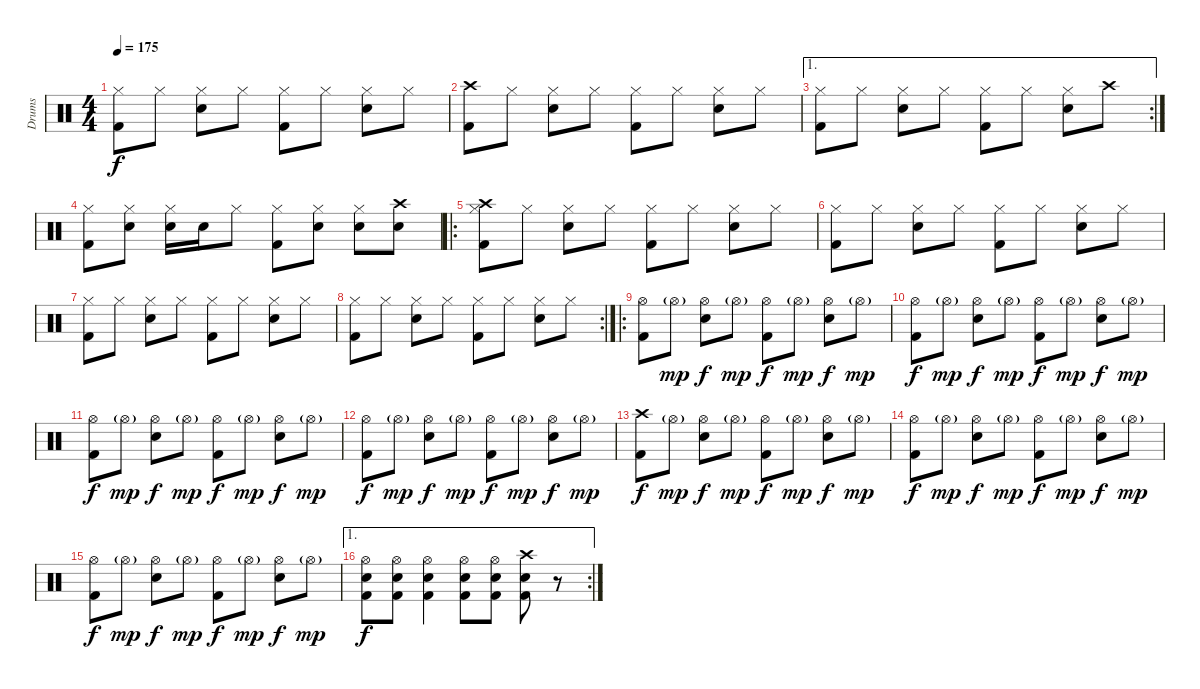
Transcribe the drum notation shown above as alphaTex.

\track ("Drums" "Drums") {instrument percussion}
\staff {score}
\articulation defaults
\ts (4 4)
\tempo 175
\clef neutral
\ks c
("Hi-Hat (closed)" "Kick (hit) 2").8{dy f} "Hi-Hat (closed)".8 ("Hi-Hat (closed)" "Snare (hit) 2").8 "Hi-Hat (closed)".8 ("Hi-Hat (closed)" "Kick (hit) 2").8 "Hi-Hat (closed)".8 ("Hi-Hat (closed)" "Snare (hit) 2").8 "Hi-Hat (closed)".8 |
("Crash high (hit)" "Kick (hit) 2").8 "Hi-Hat (closed)".8 ("Hi-Hat (closed)" "Snare (hit) 2").8 "Hi-Hat (closed)".8 ("Hi-Hat (closed)" "Kick (hit) 2").8 "Hi-Hat (closed)".8 ("Hi-Hat (closed)" "Snare (hit) 2").8 "Hi-Hat (closed)".8 |
\ae 1
\rc 2
("Hi-Hat (closed)" "Kick (hit) 2").8 "Hi-Hat (closed)".8 ("Hi-Hat (closed)" "Snare (hit) 2").8 "Hi-Hat (closed)".8 ("Hi-Hat (closed)" "Kick (hit) 2").8 "Hi-Hat (closed)".8 ("Hi-Hat (closed)" "Snare (hit) 2").8 "Crash high (hit)".8 |
("Hi-Hat (closed)" "Kick (hit) 2").8 ("Hi-Hat (closed)" "Snare (hit) 2").8 ("Hi-Hat (closed)" "Snare (hit) 2").16 "Snare (hit) 2".16 "Hi-Hat (closed)".8 ("Hi-Hat (closed)" "Kick (hit) 2").8 ("Hi-Hat (closed)" "Snare (hit) 2").8 ("Hi-Hat (closed)" "Snare (hit) 2").8 ("Crash high (hit)" "Snare (hit) 2").8 |
\ro
("Hi-Hat (closed)" "Crash high (hit)" "Kick (hit) 2").8 "Hi-Hat (closed)".8 ("Hi-Hat (closed)" "Snare (hit) 2").8 "Hi-Hat (closed)".8 ("Hi-Hat (closed)" "Kick (hit) 2").8 "Hi-Hat (closed)".8 ("Hi-Hat (closed)" "Snare (hit) 2").8 "Hi-Hat (closed)".8 |
("Hi-Hat (closed)" "Kick (hit) 2").8 "Hi-Hat (closed)".8 ("Hi-Hat (closed)" "Snare (hit) 2").8 "Hi-Hat (closed)".8 ("Hi-Hat (closed)" "Kick (hit) 2").8 "Hi-Hat (closed)".8 ("Hi-Hat (closed)" "Snare (hit) 2").8 "Hi-Hat (closed)".8 |
("Hi-Hat (closed)" "Kick (hit) 2").8 "Hi-Hat (closed)".8 ("Hi-Hat (closed)" "Snare (hit) 2").8 "Hi-Hat (closed)".8 ("Hi-Hat (closed)" "Kick (hit) 2").8 "Hi-Hat (closed)".8 ("Hi-Hat (closed)" "Snare (hit) 2").8 "Hi-Hat (closed)".8 |
\rc 2
("Hi-Hat (closed)" "Kick (hit) 2").8 "Hi-Hat (closed)".8 ("Hi-Hat (closed)" "Snare (hit) 2").8 "Hi-Hat (closed)".8 ("Hi-Hat (closed)" "Kick (hit) 2").8 "Hi-Hat (closed)".8 ("Hi-Hat (closed)" "Snare (hit) 2").8 "Hi-Hat (closed)".8 |
\ro
("Hi-Hat (open)" "Kick (hit) 2").8 "Hi-Hat (open)"{g}.8{dy mp} ("Hi-Hat (open)" "Snare (hit) 2").8{dy f} "Hi-Hat (open)"{g}.8{dy mp} ("Hi-Hat (open)" "Kick (hit) 2").8{dy f} "Hi-Hat (open)"{g}.8{dy mp} ("Hi-Hat (open)" "Snare (hit) 2").8{dy f} "Hi-Hat (open)"{g}.8{dy mp} |
("Hi-Hat (open)" "Kick (hit) 2").8{dy f} "Hi-Hat (open)"{g}.8{dy mp} ("Hi-Hat (open)" "Snare (hit) 2").8{dy f} "Hi-Hat (open)"{g}.8{dy mp} ("Hi-Hat (open)" "Kick (hit) 2").8{dy f} "Hi-Hat (open)"{g}.8{dy mp} ("Hi-Hat (open)" "Snare (hit) 2").8{dy f} "Hi-Hat (open)"{g}.8{dy mp} |
("Hi-Hat (open)" "Kick (hit) 2").8{dy f} "Hi-Hat (open)"{g}.8{dy mp} ("Hi-Hat (open)" "Snare (hit) 2").8{dy f} "Hi-Hat (open)"{g}.8{dy mp} ("Hi-Hat (open)" "Kick (hit) 2").8{dy f} "Hi-Hat (open)"{g}.8{dy mp} ("Hi-Hat (open)" "Snare (hit) 2").8{dy f} "Hi-Hat (open)"{g}.8{dy mp} |
("Hi-Hat (open)" "Kick (hit) 2").8{dy f} "Hi-Hat (open)"{g}.8{dy mp} ("Hi-Hat (open)" "Snare (hit) 2").8{dy f} "Hi-Hat (open)"{g}.8{dy mp} ("Hi-Hat (open)" "Kick (hit) 2").8{dy f} "Hi-Hat (open)"{g}.8{dy mp} ("Hi-Hat (open)" "Snare (hit) 2").8{dy f} "Hi-Hat (open)"{g}.8{dy mp} |
("Crash high (hit)" "Kick (hit) 2").8{dy f} "Hi-Hat (open)"{g}.8{dy mp} ("Hi-Hat (open)" "Snare (hit) 2").8{dy f} "Hi-Hat (open)"{g}.8{dy mp} ("Hi-Hat (open)" "Kick (hit) 2").8{dy f} "Hi-Hat (open)"{g}.8{dy mp} ("Hi-Hat (open)" "Snare (hit) 2").8{dy f} "Hi-Hat (open)"{g}.8{dy mp} |
("Hi-Hat (open)" "Kick (hit) 2").8{dy f} "Hi-Hat (open)"{g}.8{dy mp} ("Hi-Hat (open)" "Snare (hit) 2").8{dy f} "Hi-Hat (open)"{g}.8{dy mp} ("Hi-Hat (open)" "Kick (hit) 2").8{dy f} "Hi-Hat (open)"{g}.8{dy mp} ("Hi-Hat (open)" "Snare (hit) 2").8{dy f} "Hi-Hat (open)"{g}.8{dy mp} |
("Hi-Hat (open)" "Kick (hit) 2").8{dy f} "Hi-Hat (open)"{g}.8{dy mp} ("Hi-Hat (open)" "Snare (hit) 2").8{dy f} "Hi-Hat (open)"{g}.8{dy mp} ("Hi-Hat (open)" "Kick (hit) 2").8{dy f} "Hi-Hat (open)"{g}.8{dy mp} ("Hi-Hat (open)" "Snare (hit) 2").8{dy f} "Hi-Hat (open)"{g}.8{dy mp} |
\ae 1
\rc 2
("Hi-Hat (open)" "Snare (hit) 2" "Kick (hit) 2").8{dy f} ("Hi-Hat (open)" "Snare (hit) 2" "Kick (hit) 2").8 ("Hi-Hat (open)" "Snare (hit) 2" "Kick (hit) 2").4 ("Hi-Hat (open)" "Snare (hit) 2" "Kick (hit) 2").8 ("Hi-Hat (open)" "Snare (hit) 2" "Kick (hit) 2").8 ("Crash high (hit)" "Snare (hit) 2" "Kick (hit) 2").8 r.8
